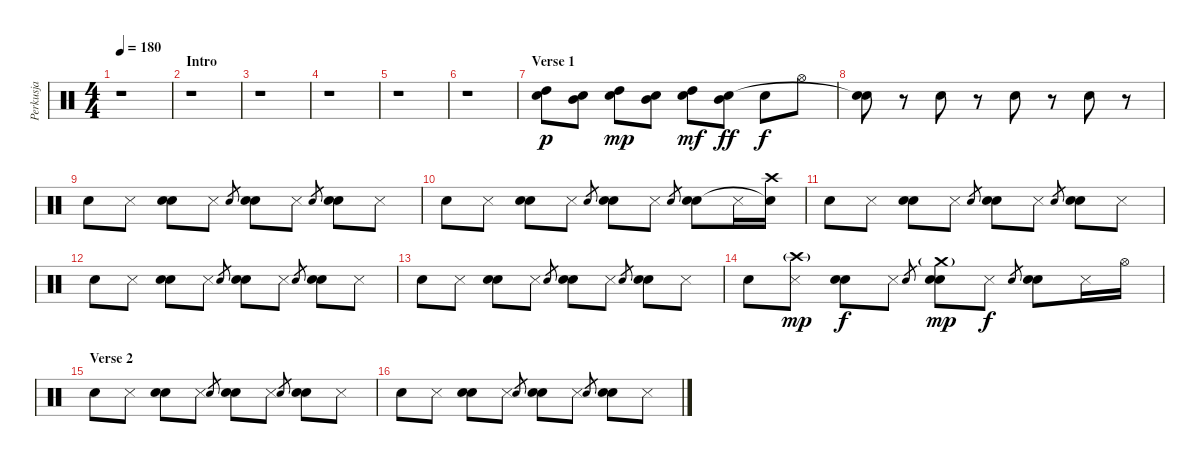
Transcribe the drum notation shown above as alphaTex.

\track ("Perkusja" "Perkusja") {instrument percussion}
\staff {score}
\articulation defaults
\ts (4 4)
\tempo 180
\clef neutral
\ks c
r.1{dy p} |
\section ("" "Intro")
r.1 |
r.1 |
r.1 |
r.1 |
r.1 |
\section ("" "Verse 1")
("High Tom (hit)" "Snare (hit) 2").8 ("Mid Tom (hit)" "Electric Snare (hit)").8 ("High Tom (hit)" "Snare (hit) 2").8{dy mp} ("Mid Tom (hit)" "Electric Snare (hit)").8 ("High Tom (hit)" "Snare (hit) 2").8{dy mf} ("Mid Tom (hit)" "Electric Snare (hit)").8{dy ff} "Electric Snare (hit)".8{dy f} "Hi-Hat (open)".8 |
("Snare (hit) 2" "Snare (hit)"{t}).8 r.8 "Electric Snare (hit)".8 r.8 "Snare (hit) 2".8 r.8 "Electric Snare (hit)".8 r.8 |
"Snare (hit) 2".8 "Snare (side stick) 3".8 ("Electric Snare (hit)" "Metronome (bell)").8 "Snare (side stick) 3".8 "Snare (hit) 2".8{gr} ("Snare (hit) 2" "Metronome (bell)").8 "Snare (side stick) 3".8 "Electric Snare (hit)".8{gr} ("Electric Snare (hit)" "Metronome (bell)").8 "Snare (side stick) 3".8 |
"Snare (hit) 2".8 "Snare (side stick) 3".8 ("Electric Snare (hit)" "Metronome (bell)").8 "Snare (side stick) 3".8 "Snare (hit) 2".8{gr} ("Snare (hit) 2" "Metronome (bell)").8 "Snare (side stick) 3".8 "Electric Snare (hit)".8{gr} ("Electric Snare (hit)" "Metronome (bell)").8 "Snare (side stick) 3".16 ("Crash high (hit)" "Snare (hit)"{t}).16 |
"Snare (hit) 2".8 "Snare (side stick) 3".8 ("Electric Snare (hit)" "Metronome (bell)").8 "Snare (side stick) 3".8 "Snare (hit) 2".8{gr} ("Snare (hit) 2" "Metronome (bell)").8 "Snare (side stick) 3".8 "Electric Snare (hit)".8{gr} ("Electric Snare (hit)" "Metronome (bell)").8 "Snare (side stick) 3".8 |
"Snare (hit) 2".8 "Snare (side stick) 3".8 ("Electric Snare (hit)" "Metronome (bell)").8 "Snare (side stick) 3".8 "Snare (hit) 2".8{gr} ("Snare (hit) 2" "Metronome (bell)").8 "Snare (side stick) 3".8 "Electric Snare (hit)".8{gr} ("Electric Snare (hit)" "Metronome (bell)").8 "Snare (side stick) 3".8 |
"Snare (hit) 2".8 "Snare (side stick) 3".8 ("Electric Snare (hit)" "Metronome (bell)").8 "Snare (side stick) 3".8 "Snare (hit) 2".8{gr} ("Snare (hit) 2" "Metronome (bell)").8 "Snare (side stick) 3".8 "Electric Snare (hit)".8{gr} ("Electric Snare (hit)" "Metronome (bell)").8 "Snare (side stick) 3".8 |
"Snare (hit) 2".8 ("Crash high (hit)"{g} "Snare (side stick) 3").8{dy mp} ("Electric Snare (hit)" "Metronome (bell)").8{dy f} "Snare (side stick) 3".8 "Snare (hit) 2".8{gr} ("Snare (hit) 2" "Crash medium (hit)"{g} "Metronome (bell)").8{dy mp} "Snare (side stick) 3".8{dy f} "Electric Snare (hit)".8{gr} ("Electric Snare (hit)" "Metronome (bell)").8 "Snare (side stick) 3".16 "Hi-Hat (open)".16 |
\section ("" "Verse 2")
"Snare (hit) 2".8 "Snare (side stick) 3".8 ("Electric Snare (hit)" "Metronome (bell)").8 "Snare (side stick) 3".8 "Snare (hit) 2".8{gr} ("Snare (hit) 2" "Metronome (bell)").8 "Snare (side stick) 3".8 "Electric Snare (hit)".8{gr} ("Electric Snare (hit)" "Metronome (bell)").8 "Snare (side stick) 3".8 |
"Snare (hit) 2".8 "Snare (side stick) 3".8 ("Electric Snare (hit)" "Metronome (bell)").8 "Snare (side stick) 3".8 "Snare (hit) 2".8{gr} ("Snare (hit) 2" "Metronome (bell)").8 "Snare (side stick) 3".8 "Electric Snare (hit)".8{gr} ("Electric Snare (hit)" "Metronome (bell)").8 "Snare (side stick) 3".8
